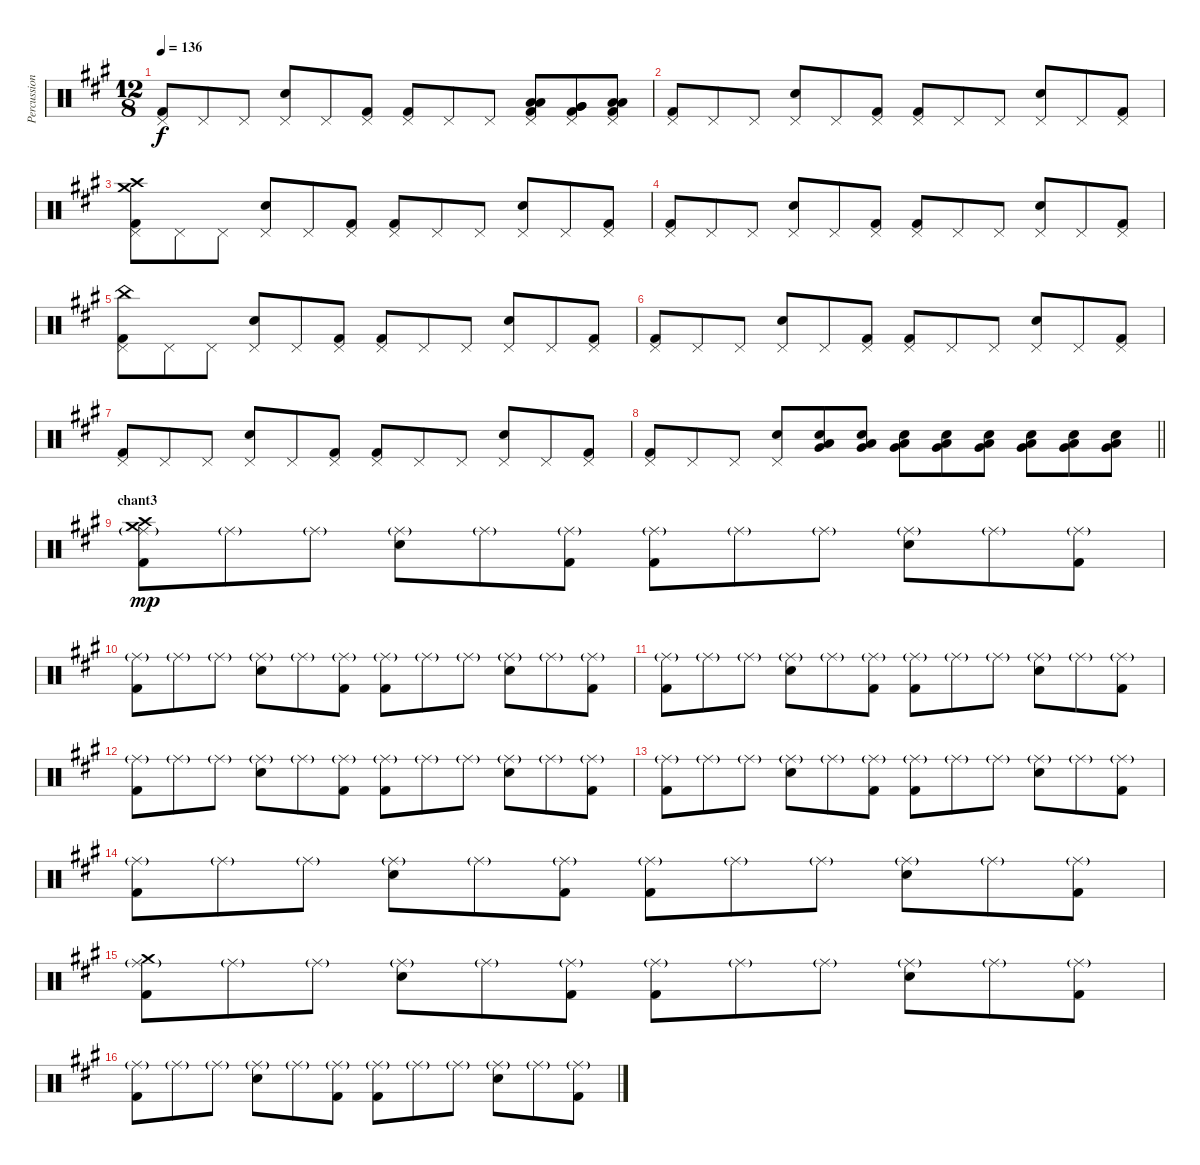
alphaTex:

\track ("Percussions" "Percussion") {instrument percussion}
\staff {score}
\articulation defaults
\ts (12 8)
\tempo 136
\clef neutral
\ks a
("Pedal Hi-Hat (hit)" "Kick (hit) 2").8{dy f} "Pedal Hi-Hat (hit)".8 "Pedal Hi-Hat (hit)".8 ("Pedal Hi-Hat (hit)" "Snare (hit) 2").8 "Pedal Hi-Hat (hit)".8 ("Pedal Hi-Hat (hit)" "Kick (hit) 2").8 ("Pedal Hi-Hat (hit)" "Kick (hit) 2").8 "Pedal Hi-Hat (hit)".8 "Pedal Hi-Hat (hit)".8 ("Low Tom (hit)" "Low Tom (hit)" "Kick (hit) 2" "Pedal Hi-Hat (hit)").8 ("Very Low Tom (hit)" "Very Low Tom (hit)" "Kick (hit) 2" "Pedal Hi-Hat (hit)").8 ("Low Floor Tom (hit)" "Low Floor Tom (hit)" "Kick (hit) 2" "Pedal Hi-Hat (hit)").8 |
("Pedal Hi-Hat (hit)" "Kick (hit) 2").8 "Pedal Hi-Hat (hit)".8 "Pedal Hi-Hat (hit)".8 ("Pedal Hi-Hat (hit)" "Snare (hit) 2").8 "Pedal Hi-Hat (hit)".8 ("Pedal Hi-Hat (hit)" "Kick (hit) 2").8 ("Pedal Hi-Hat (hit)" "Kick (hit) 2").8 "Pedal Hi-Hat (hit)".8 "Pedal Hi-Hat (hit)".8 ("Pedal Hi-Hat (hit)" "Snare (hit) 2").8 "Pedal Hi-Hat (hit)".8 ("Pedal Hi-Hat (hit)" "Kick (hit) 2").8 |
("Pedal Hi-Hat (hit)" "Crash high (hit)" "Crash medium (hit)" "Kick (hit) 2").8 "Pedal Hi-Hat (hit)".8 "Pedal Hi-Hat (hit)".8 ("Pedal Hi-Hat (hit)" "Snare (hit) 2").8 "Pedal Hi-Hat (hit)".8 ("Pedal Hi-Hat (hit)" "Kick (hit) 2").8 ("Pedal Hi-Hat (hit)" "Kick (hit) 2").8 "Pedal Hi-Hat (hit)".8 "Pedal Hi-Hat (hit)".8 ("Pedal Hi-Hat (hit)" "Snare (hit) 2").8 "Pedal Hi-Hat (hit)".8 ("Pedal Hi-Hat (hit)" "Kick (hit) 2").8 |
("Pedal Hi-Hat (hit)" "Kick (hit) 2").8 "Pedal Hi-Hat (hit)".8 "Pedal Hi-Hat (hit)".8 ("Pedal Hi-Hat (hit)" "Snare (hit) 2").8 "Pedal Hi-Hat (hit)".8 ("Pedal Hi-Hat (hit)" "Kick (hit) 2").8 ("Pedal Hi-Hat (hit)" "Kick (hit) 2").8 "Pedal Hi-Hat (hit)".8 "Pedal Hi-Hat (hit)".8 ("Pedal Hi-Hat (hit)" "Snare (hit) 2").8 "Pedal Hi-Hat (hit)".8 ("Pedal Hi-Hat (hit)" "Kick (hit) 2").8 |
("Pedal Hi-Hat (hit)" "China (hit)" "Kick (hit) 2").8 "Pedal Hi-Hat (hit)".8 "Pedal Hi-Hat (hit)".8 ("Pedal Hi-Hat (hit)" "Snare (hit) 2").8 "Pedal Hi-Hat (hit)".8 ("Pedal Hi-Hat (hit)" "Kick (hit) 2").8 ("Pedal Hi-Hat (hit)" "Kick (hit) 2").8 "Pedal Hi-Hat (hit)".8 "Pedal Hi-Hat (hit)".8 ("Pedal Hi-Hat (hit)" "Snare (hit) 2").8 "Pedal Hi-Hat (hit)".8 ("Pedal Hi-Hat (hit)" "Kick (hit) 2").8 |
("Pedal Hi-Hat (hit)" "Kick (hit) 2").8 "Pedal Hi-Hat (hit)".8 "Pedal Hi-Hat (hit)".8 ("Pedal Hi-Hat (hit)" "Snare (hit) 2").8 "Pedal Hi-Hat (hit)".8 ("Pedal Hi-Hat (hit)" "Kick (hit) 2").8 ("Pedal Hi-Hat (hit)" "Kick (hit) 2").8 "Pedal Hi-Hat (hit)".8 "Pedal Hi-Hat (hit)".8 ("Pedal Hi-Hat (hit)" "Snare (hit) 2").8 "Pedal Hi-Hat (hit)".8 ("Pedal Hi-Hat (hit)" "Kick (hit) 2").8 |
("Pedal Hi-Hat (hit)" "Kick (hit) 2").8 "Pedal Hi-Hat (hit)".8 "Pedal Hi-Hat (hit)".8 ("Pedal Hi-Hat (hit)" "Snare (hit) 2").8 "Pedal Hi-Hat (hit)".8 ("Pedal Hi-Hat (hit)" "Kick (hit) 2").8 ("Pedal Hi-Hat (hit)" "Kick (hit) 2").8 "Pedal Hi-Hat (hit)".8 "Pedal Hi-Hat (hit)".8 ("Pedal Hi-Hat (hit)" "Snare (hit) 2").8 "Pedal Hi-Hat (hit)".8 ("Pedal Hi-Hat (hit)" "Kick (hit) 2").8 |
\barLineRight lightlight
("Pedal Hi-Hat (hit)" "Kick (hit) 2").8 "Pedal Hi-Hat (hit)".8 "Pedal Hi-Hat (hit)".8 ("Pedal Hi-Hat (hit)" "Snare (hit) 2").8 ("Snare (hit) 2" "Very Low Tom (hit)" "Low Floor Tom (hit)").8 ("Snare (hit) 2" "Very Low Tom (hit)" "Low Floor Tom (hit)").8 ("Snare (hit) 2" "Very Low Tom (hit)" "Low Floor Tom (hit)").8 ("Snare (hit) 2" "Very Low Tom (hit)" "Low Floor Tom (hit)").8 ("Snare (hit) 2" "Very Low Tom (hit)" "Low Floor Tom (hit)").8 ("Snare (hit) 2" "Very Low Tom (hit)" "Low Floor Tom (hit)").8 ("Snare (hit) 2" "Very Low Tom (hit)" "Low Floor Tom (hit)").8 ("Snare (hit) 2" "Very Low Tom (hit)" "Low Floor Tom (hit)").8 |
\section ("" "chant3")
("Ride (middle)"{g} "Crash high (hit)" "Crash medium (hit)" "Kick (hit) 2").8{dy mp} "Ride (middle)"{g}.8 "Ride (middle)"{g}.8 ("Ride (middle)"{g} "Snare (hit) 2").8 "Ride (middle)"{g}.8 ("Ride (middle)"{g} "Kick (hit) 2").8 ("Ride (middle)"{g} "Kick (hit) 2").8 "Ride (middle)"{g}.8 "Ride (middle)"{g}.8 ("Ride (middle)"{g} "Snare (hit) 2").8 "Ride (middle)"{g}.8 ("Ride (middle)"{g} "Kick (hit) 2").8 |
("Ride (middle)"{g} "Kick (hit) 2").8 "Ride (middle)"{g}.8 "Ride (middle)"{g}.8 ("Ride (middle)"{g} "Snare (hit) 2").8 "Ride (middle)"{g}.8 ("Ride (middle)"{g} "Kick (hit) 2").8 ("Ride (middle)"{g} "Kick (hit) 2").8 "Ride (middle)"{g}.8 "Ride (middle)"{g}.8 ("Ride (middle)"{g} "Snare (hit) 2").8 "Ride (middle)"{g}.8 ("Ride (middle)"{g} "Kick (hit) 2").8 |
("Ride (middle)"{g} "Kick (hit) 2").8 "Ride (middle)"{g}.8 "Ride (middle)"{g}.8 ("Ride (middle)"{g} "Snare (hit) 2").8 "Ride (middle)"{g}.8 ("Ride (middle)"{g} "Kick (hit) 2").8 ("Ride (middle)"{g} "Kick (hit) 2").8 "Ride (middle)"{g}.8 "Ride (middle)"{g}.8 ("Ride (middle)"{g} "Snare (hit) 2").8 "Ride (middle)"{g}.8 ("Ride (middle)"{g} "Kick (hit) 2").8 |
("Ride (middle)"{g} "Kick (hit) 2").8 "Ride (middle)"{g}.8 "Ride (middle)"{g}.8 ("Ride (middle)"{g} "Snare (hit) 2").8 "Ride (middle)"{g}.8 ("Ride (middle)"{g} "Kick (hit) 2").8 ("Ride (middle)"{g} "Kick (hit) 2").8 "Ride (middle)"{g}.8 "Ride (middle)"{g}.8 ("Ride (middle)"{g} "Snare (hit) 2").8 "Ride (middle)"{g}.8 ("Ride (middle)"{g} "Kick (hit) 2").8 |
("Ride (middle)"{g} "Kick (hit) 2").8 "Ride (middle)"{g}.8 "Ride (middle)"{g}.8 ("Ride (middle)"{g} "Snare (hit) 2").8 "Ride (middle)"{g}.8 ("Ride (middle)"{g} "Kick (hit) 2").8 ("Ride (middle)"{g} "Kick (hit) 2").8 "Ride (middle)"{g}.8 "Ride (middle)"{g}.8 ("Ride (middle)"{g} "Snare (hit) 2").8 "Ride (middle)"{g}.8 ("Ride (middle)"{g} "Kick (hit) 2").8 |
("Ride (middle)"{g} "Kick (hit) 2").8 "Ride (middle)"{g}.8 "Ride (middle)"{g}.8 ("Ride (middle)"{g} "Snare (hit) 2").8 "Ride (middle)"{g}.8 ("Ride (middle)"{g} "Kick (hit) 2").8 ("Ride (middle)"{g} "Kick (hit) 2").8 "Ride (middle)"{g}.8 "Ride (middle)"{g}.8 ("Ride (middle)"{g} "Snare (hit) 2").8 "Ride (middle)"{g}.8 ("Ride (middle)"{g} "Kick (hit) 2").8 |
("Ride (middle)"{g} "Crash medium (hit)" "Kick (hit) 2").8 "Ride (middle)"{g}.8 "Ride (middle)"{g}.8 ("Ride (middle)"{g} "Snare (hit) 2").8 "Ride (middle)"{g}.8 ("Ride (middle)"{g} "Kick (hit) 2").8 ("Ride (middle)"{g} "Kick (hit) 2").8 "Ride (middle)"{g}.8 "Ride (middle)"{g}.8 ("Ride (middle)"{g} "Snare (hit) 2").8 "Ride (middle)"{g}.8 ("Ride (middle)"{g} "Kick (hit) 2").8 |
("Ride (middle)"{g} "Kick (hit) 2").8 "Ride (middle)"{g}.8 "Ride (middle)"{g}.8 ("Ride (middle)"{g} "Snare (hit) 2").8 "Ride (middle)"{g}.8 ("Ride (middle)"{g} "Kick (hit) 2").8 ("Ride (middle)"{g} "Kick (hit) 2").8 "Ride (middle)"{g}.8 "Ride (middle)"{g}.8 ("Ride (middle)"{g} "Snare (hit) 2").8 "Ride (middle)"{g}.8 ("Ride (middle)"{g} "Kick (hit) 2").8
